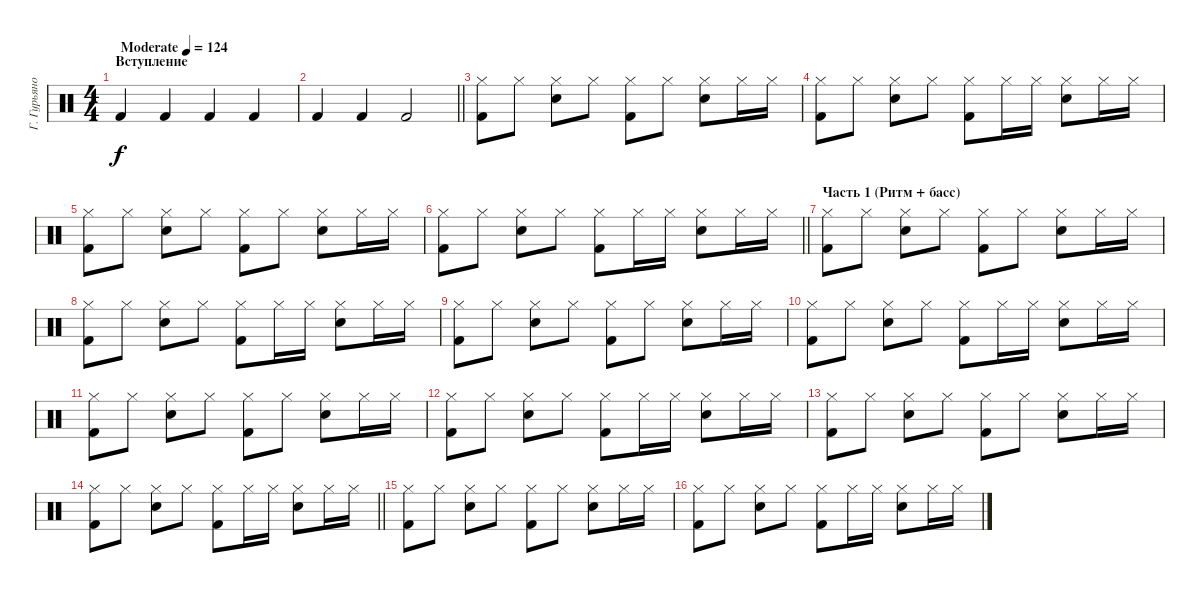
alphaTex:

\track ("Г. Гурьянов" "Г. Гурьяно") {instrument percussion}
\staff
\articulation defaults
\ts (4 4)
\section ("" "Вступление")
\tempo (124 "Moderate")
\clef neutral
\ks c "Kick (hit) 2".4{dy f} "Kick (hit) 2".4 "Kick (hit) 2".4 "Kick (hit) 2".4
|
\barLineRight lightlight "Kick (hit) 2".4 "Kick (hit) 2".4 "Kick (hit) 2".2
|
("Hi-Hat (closed)" "Kick (hit) 2").8 "Hi-Hat (closed)".8 ("Hi-Hat (closed)" "Snare (hit) 2").8 "Hi-Hat (closed)".8 ("Hi-Hat (closed)" "Kick (hit) 2").8 "Hi-Hat (closed)".8 ("Hi-Hat (closed)" "Snare (hit) 2").8 "Hi-Hat (closed)".16 "Hi-Hat (closed)".16 |
("Hi-Hat (closed)" "Kick (hit) 2").8 "Hi-Hat (closed)".8 ("Hi-Hat (closed)" "Snare (hit) 2").8 "Hi-Hat (closed)".8 ("Hi-Hat (closed)" "Kick (hit) 2").8 "Hi-Hat (closed)".16 "Hi-Hat (closed)".16 ("Hi-Hat (closed)" "Snare (hit) 2").8 "Hi-Hat (closed)".16 "Hi-Hat (closed)".16 |
("Hi-Hat (closed)" "Kick (hit) 2").8 "Hi-Hat (closed)".8 ("Hi-Hat (closed)" "Snare (hit) 2").8 "Hi-Hat (closed)".8 ("Hi-Hat (closed)" "Kick (hit) 2").8 "Hi-Hat (closed)".8 ("Hi-Hat (closed)" "Snare (hit) 2").8 "Hi-Hat (closed)".16 "Hi-Hat (closed)".16 |
\barLineRight lightlight
("Hi-Hat (closed)" "Kick (hit) 2").8 "Hi-Hat (closed)".8 ("Hi-Hat (closed)" "Snare (hit) 2").8 "Hi-Hat (closed)".8 ("Hi-Hat (closed)" "Kick (hit) 2").8 "Hi-Hat (closed)".16 "Hi-Hat (closed)".16 ("Hi-Hat (closed)" "Snare (hit) 2").8 "Hi-Hat (closed)".16 "Hi-Hat (closed)".16 |
\section ("" "Часть 1 (Ритм + басс)")
("Hi-Hat (closed)" "Kick (hit) 2").8 "Hi-Hat (closed)".8 ("Hi-Hat (closed)" "Snare (hit) 2").8 "Hi-Hat (closed)".8 ("Hi-Hat (closed)" "Kick (hit) 2").8 "Hi-Hat (closed)".8 ("Hi-Hat (closed)" "Snare (hit) 2").8 "Hi-Hat (closed)".16 "Hi-Hat (closed)".16 |
("Hi-Hat (closed)" "Kick (hit) 2").8 "Hi-Hat (closed)".8 ("Hi-Hat (closed)" "Snare (hit) 2").8 "Hi-Hat (closed)".8 ("Hi-Hat (closed)" "Kick (hit) 2").8 "Hi-Hat (closed)".16 "Hi-Hat (closed)".16 ("Hi-Hat (closed)" "Snare (hit) 2").8 "Hi-Hat (closed)".16 "Hi-Hat (closed)".16 |
("Hi-Hat (closed)" "Kick (hit) 2").8 "Hi-Hat (closed)".8 ("Hi-Hat (closed)" "Snare (hit) 2").8 "Hi-Hat (closed)".8 ("Hi-Hat (closed)" "Kick (hit) 2").8 "Hi-Hat (closed)".8 ("Hi-Hat (closed)" "Snare (hit) 2").8 "Hi-Hat (closed)".16 "Hi-Hat (closed)".16 |
("Hi-Hat (closed)" "Kick (hit) 2").8 "Hi-Hat (closed)".8 ("Hi-Hat (closed)" "Snare (hit) 2").8 "Hi-Hat (closed)".8 ("Hi-Hat (closed)" "Kick (hit) 2").8 "Hi-Hat (closed)".16 "Hi-Hat (closed)".16 ("Hi-Hat (closed)" "Snare (hit) 2").8 "Hi-Hat (closed)".16 "Hi-Hat (closed)".16 |
("Hi-Hat (closed)" "Kick (hit) 2").8 "Hi-Hat (closed)".8 ("Hi-Hat (closed)" "Snare (hit) 2").8 "Hi-Hat (closed)".8 ("Hi-Hat (closed)" "Kick (hit) 2").8 "Hi-Hat (closed)".8 ("Hi-Hat (closed)" "Snare (hit) 2").8 "Hi-Hat (closed)".16 "Hi-Hat (closed)".16 |
("Hi-Hat (closed)" "Kick (hit) 2").8 "Hi-Hat (closed)".8 ("Hi-Hat (closed)" "Snare (hit) 2").8 "Hi-Hat (closed)".8 ("Hi-Hat (closed)" "Kick (hit) 2").8 "Hi-Hat (closed)".16 "Hi-Hat (closed)".16 ("Hi-Hat (closed)" "Snare (hit) 2").8 "Hi-Hat (closed)".16 "Hi-Hat (closed)".16 |
("Hi-Hat (closed)" "Kick (hit) 2").8 "Hi-Hat (closed)".8 ("Hi-Hat (closed)" "Snare (hit) 2").8 "Hi-Hat (closed)".8 ("Hi-Hat (closed)" "Kick (hit) 2").8 "Hi-Hat (closed)".8 ("Hi-Hat (closed)" "Snare (hit) 2").8 "Hi-Hat (closed)".16 "Hi-Hat (closed)".16 |
\barLineRight lightlight
("Hi-Hat (closed)" "Kick (hit) 2").8 "Hi-Hat (closed)".8 ("Hi-Hat (closed)" "Snare (hit) 2").8 "Hi-Hat (closed)".8 ("Hi-Hat (closed)" "Kick (hit) 2").8 "Hi-Hat (closed)".16 "Hi-Hat (closed)".16 ("Hi-Hat (closed)" "Snare (hit) 2").8 "Hi-Hat (closed)".16 "Hi-Hat (closed)".16 |
("Hi-Hat (closed)" "Kick (hit) 2").8 "Hi-Hat (closed)".8 ("Hi-Hat (closed)" "Snare (hit) 2").8 "Hi-Hat (closed)".8 ("Hi-Hat (closed)" "Kick (hit) 2").8 "Hi-Hat (closed)".8 ("Hi-Hat (closed)" "Snare (hit) 2").8 "Hi-Hat (closed)".16 "Hi-Hat (closed)".16 |
("Hi-Hat (closed)" "Kick (hit) 2").8 "Hi-Hat (closed)".8 ("Hi-Hat (closed)" "Snare (hit) 2").8 "Hi-Hat (closed)".8 ("Hi-Hat (closed)" "Kick (hit) 2").8 "Hi-Hat (closed)".16 "Hi-Hat (closed)".16 ("Hi-Hat (closed)" "Snare (hit) 2").8 "Hi-Hat (closed)".16 "Hi-Hat (closed)".16
